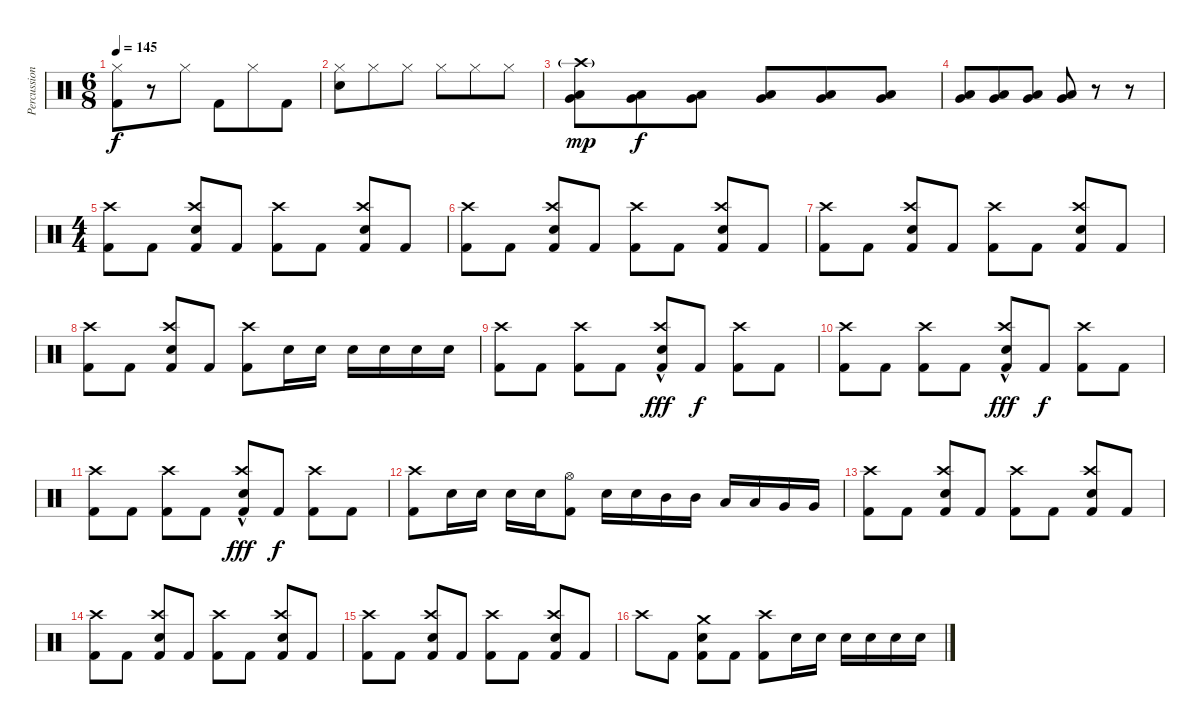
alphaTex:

\track ("Percussion" "Percussion") {instrument percussion}
\staff {score}
\articulation defaults
\ts (6 8)
\tempo 145
\clef neutral
\ks c
("Hi-Hat (closed)" "Kick (hit) 2").8{dy f} r.8 "Hi-Hat (closed)".8 "Kick (hit) 2".8 "Hi-Hat (closed)".8 "Kick (hit) 2".8 |
("Hi-Hat (closed)" "Snare (hit) 2").8 "Hi-Hat (closed)".8 "Hi-Hat (closed)".8 "Hi-Hat (closed)".8 "Hi-Hat (closed)".8 "Hi-Hat (closed)".8 |
("Crash high (hit)"{g} "Low Tom (hit)" "Very Low Tom (hit)").8{dy mp} ("Low Tom (hit)" "Very Low Tom (hit)").8{dy f} ("Low Tom (hit)" "Very Low Tom (hit)").8 ("Low Tom (hit)" "Very Low Tom (hit)").8 ("Low Tom (hit)" "Very Low Tom (hit)").8 ("Low Tom (hit)" "Very Low Tom (hit)").8 |
("Low Tom (hit)" "Very Low Tom (hit)").8 ("Low Tom (hit)" "Very Low Tom (hit)").8 ("Low Tom (hit)" "Very Low Tom (hit)").8 ("Low Tom (hit)" "Very Low Tom (hit)").8 r.8 r.8 |
\ts (4 4)
("Crash high (hit)" "Kick (hit) 2").8 "Kick (hit) 2".8 ("Crash high (hit)" "Electric Snare (hit)" "Kick (hit) 2").8 "Kick (hit) 2".8 ("Crash high (hit)" "Kick (hit) 2").8 "Kick (hit) 2".8 ("Crash high (hit)" "Electric Snare (hit)" "Kick (hit) 2").8 "Kick (hit) 2".8 |
("Crash high (hit)" "Kick (hit) 2").8 "Kick (hit) 2".8 ("Crash high (hit)" "Electric Snare (hit)" "Kick (hit) 2").8 "Kick (hit) 2".8 ("Crash high (hit)" "Kick (hit) 2").8 "Kick (hit) 2".8 ("Crash high (hit)" "Electric Snare (hit)" "Kick (hit) 2").8 "Kick (hit) 2".8 |
("Crash high (hit)" "Kick (hit) 2").8 "Kick (hit) 2".8 ("Crash high (hit)" "Electric Snare (hit)" "Kick (hit) 2").8 "Kick (hit) 2".8 ("Crash high (hit)" "Kick (hit) 2").8 "Kick (hit) 2".8 ("Crash high (hit)" "Electric Snare (hit)" "Kick (hit) 2").8 "Kick (hit) 2".8 |
("Crash high (hit)" "Kick (hit) 2").8 "Kick (hit) 2".8 ("Crash high (hit)" "Electric Snare (hit)" "Kick (hit) 2").8 "Kick (hit) 2".8 ("Crash high (hit)" "Kick (hit) 2").8 "Snare (hit) 2".16 "Snare (hit) 2".16 "Snare (hit) 2".16 "Snare (hit) 2".16 "Snare (hit) 2".16 "Snare (hit) 2".16 |
("Crash high (hit)" "Kick (hit) 2").8{volume 16} "Kick (hit) 2".8 ("Crash high (hit)" "Kick (hit) 2").8 "Kick (hit) 2".8 ("Crash high (hit)" "Electric Snare (hit)"{hac} "Kick (hit) 2").8{dy fff} "Kick (hit) 2".8{dy f} ("Crash high (hit)" "Kick (hit) 2").8 "Kick (hit) 2".8 |
("Crash high (hit)" "Kick (hit) 2").8 "Kick (hit) 2".8 ("Crash high (hit)" "Kick (hit) 2").8 "Kick (hit) 2".8 ("Crash high (hit)" "Electric Snare (hit)"{hac} "Kick (hit) 2").8{dy fff} "Kick (hit) 2".8{dy f} ("Crash high (hit)" "Kick (hit) 2").8 "Kick (hit) 2".8 |
("Crash high (hit)" "Kick (hit) 2").8 "Kick (hit) 2".8 ("Crash high (hit)" "Kick (hit) 2").8 "Kick (hit) 2".8 ("Crash high (hit)" "Electric Snare (hit)"{hac} "Kick (hit) 2").8{dy fff} "Kick (hit) 2".8{dy f} ("Crash high (hit)" "Kick (hit) 2").8 "Kick (hit) 2".8 |
("Crash high (hit)" "Kick (hit) 2").8 "Snare (hit) 2".16 "Snare (hit) 2".16 "Snare (hit) 2".16 "Snare (hit) 2".16 ("Hi-Hat (open)" "Kick (hit) 2").8 "Snare (hit) 2".16 "Snare (hit) 2".16 "Mid Tom (hit)".16 "Mid Tom (hit)".16 "Low Tom (hit)".16 "Low Tom (hit)".16 "Very Low Tom (hit)".16 "Very Low Tom (hit)".16 |
("Crash high (hit)" "Kick (hit) 2").8{volume 13} "Kick (hit) 2".8 ("Crash high (hit)" "Electric Snare (hit)" "Kick (hit) 2").8 "Kick (hit) 2".8 ("Crash high (hit)" "Kick (hit) 2").8 "Kick (hit) 2".8 ("Crash high (hit)" "Electric Snare (hit)" "Kick (hit) 2").8 "Kick (hit) 2".8 |
("Crash high (hit)" "Kick (hit) 2").8 "Kick (hit) 2".8 ("Crash high (hit)" "Electric Snare (hit)" "Kick (hit) 2").8 "Kick (hit) 2".8 ("Crash high (hit)" "Kick (hit) 2").8 "Kick (hit) 2".8 ("Crash high (hit)" "Electric Snare (hit)" "Kick (hit) 2").8 "Kick (hit) 2".8 |
("Crash high (hit)" "Kick (hit) 2").8 "Kick (hit) 2".8 ("Crash high (hit)" "Electric Snare (hit)" "Kick (hit) 2").8 "Kick (hit) 2".8 ("Crash high (hit)" "Kick (hit) 2").8 "Kick (hit) 2".8 ("Crash high (hit)" "Electric Snare (hit)" "Kick (hit) 2").8 "Kick (hit) 2".8 |
"Crash high (hit)".8 "Kick (hit) 2".8 ("Crash medium (hit)" "Electric Snare (hit)" "Kick (hit) 2").8 "Kick (hit) 2".8 ("Crash high (hit)" "Kick (hit) 2").8 "Snare (hit) 2".16 "Snare (hit) 2".16 "Snare (hit) 2".16 "Snare (hit) 2".16 "Snare (hit) 2".16 "Snare (hit) 2".16
